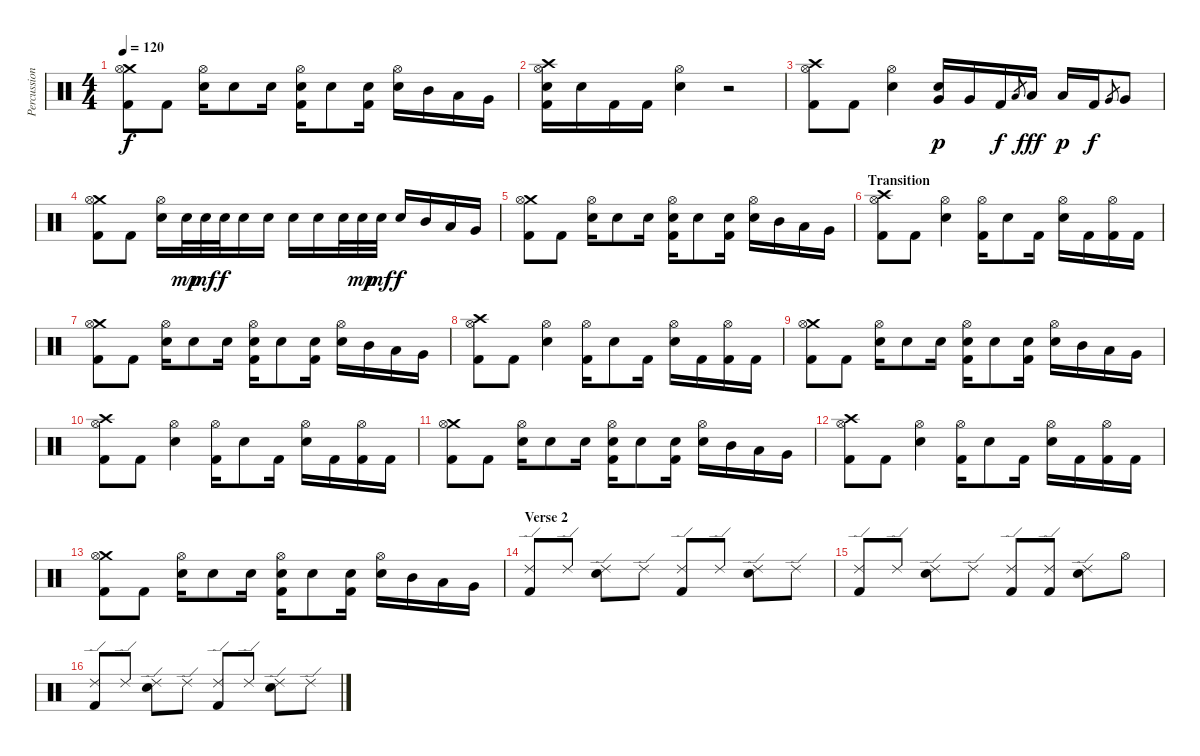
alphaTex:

\track ("Percussion" "Percussion") {instrument percussion}
\staff {score}
\articulation defaults
\ts (4 4)
\tempo 120
\clef neutral
\ks c
("Crash medium (hit)" "Hi-Hat (open)" "Kick (hit) 2").8{dy f} "Kick (hit) 2".8 ("Hi-Hat (open)" "Electric Snare (hit)").16 "Electric Snare (hit)".8 "Electric Snare (hit)".16 ("Hi-Hat (open)" "Electric Snare (hit)" "Kick (hit) 2").16 "Electric Snare (hit)".8 ("Electric Snare (hit)" "Kick (hit) 2").16 ("Hi-Hat (open)" "Electric Snare (hit)").16 "Mid Tom (hit)".16 "Low Tom (hit)".16 "Very Low Tom (hit)".16 |
("Crash high (hit)" "Hi-Hat (open)" "Electric Snare (hit)" "Kick (hit) 2").16 "Electric Snare (hit)".16 "Kick (hit) 2".16 "Kick (hit) 2".16 ("Hi-Hat (open)" "Electric Snare (hit)").4 r.2 |
("Crash high (hit)" "Hi-Hat (open)" "Kick (hit) 2").8 "Kick (hit) 2".8 ("Hi-Hat (open)" "Electric Snare (hit)").4 ("Electric Snare (hit)" "Very Low Tom (hit)").16{dy p} "Very Low Tom (hit)".16 "Kick (hit) 2".16{dy f} "Low Tom (hit)".8{gr} "Low Tom (hit)".16{dy fff} "Low Tom (hit)".16{dy p} "Kick (hit) 2".16{dy f} "Very Low Tom (hit)".8{gr} "Very Low Tom (hit)".8 |
("Crash medium (hit)" "Hi-Hat (open)" "Kick (hit) 2").8 "Kick (hit) 2".8 ("Hi-Hat (open)" "Electric Snare (hit)").16 "Electric Snare (hit)".32{dy mp} "Electric Snare (hit)".32{dy mf} "Electric Snare (hit)".32{dy f} "Electric Snare (hit)".16 "Electric Snare (hit)".16 "Electric Snare (hit)".16 "Electric Snare (hit)".16 "Electric Snare (hit)".32 "Electric Snare (hit)".32{dy mp} "Electric Snare (hit)".32{dy mf} "Electric Snare (hit)".16{dy f} "Mid Tom (hit)".16 "Low Tom (hit)".16 "Very Low Tom (hit)".16 |
("Crash medium (hit)" "Hi-Hat (open)" "Kick (hit) 2").8 "Kick (hit) 2".8 ("Hi-Hat (open)" "Electric Snare (hit)").16 "Electric Snare (hit)".8 "Electric Snare (hit)".16 ("Hi-Hat (open)" "Electric Snare (hit)" "Kick (hit) 2").16 "Electric Snare (hit)".8 ("Electric Snare (hit)" "Kick (hit) 2").16 ("Hi-Hat (open)" "Electric Snare (hit)").16 "Mid Tom (hit)".16 "Low Tom (hit)".16 "Very Low Tom (hit)".16 |
\section ("" "Transition")
("Crash high (hit)" "Hi-Hat (open)" "Kick (hit) 2").8 "Kick (hit) 2".8 ("Hi-Hat (open)" "Electric Snare (hit)").4 ("Hi-Hat (open)" "Kick (hit) 2").16 "Electric Snare (hit)".8 "Kick (hit) 2".16 ("Hi-Hat (open)" "Electric Snare (hit)").16 "Kick (hit) 2".16 ("Hi-Hat (open)" "Kick (hit) 2").16 "Kick (hit) 2".16 |
("Crash medium (hit)" "Hi-Hat (open)" "Kick (hit) 2").8 "Kick (hit) 2".8 ("Hi-Hat (open)" "Electric Snare (hit)").16 "Electric Snare (hit)".8 "Electric Snare (hit)".16 ("Hi-Hat (open)" "Electric Snare (hit)" "Kick (hit) 2").16 "Electric Snare (hit)".8 ("Electric Snare (hit)" "Kick (hit) 2").16 ("Hi-Hat (open)" "Electric Snare (hit)").16 "Mid Tom (hit)".16 "Low Tom (hit)".16 "Very Low Tom (hit)".16 |
("Crash high (hit)" "Hi-Hat (open)" "Kick (hit) 2").8 "Kick (hit) 2".8 ("Hi-Hat (open)" "Electric Snare (hit)").4 ("Hi-Hat (open)" "Kick (hit) 2").16 "Electric Snare (hit)".8 "Kick (hit) 2".16 ("Hi-Hat (open)" "Electric Snare (hit)").16 "Kick (hit) 2".16 ("Hi-Hat (open)" "Kick (hit) 2").16 "Kick (hit) 2".16 |
("Crash medium (hit)" "Hi-Hat (open)" "Kick (hit) 2").8 "Kick (hit) 2".8 ("Hi-Hat (open)" "Electric Snare (hit)").16 "Electric Snare (hit)".8 "Electric Snare (hit)".16 ("Hi-Hat (open)" "Electric Snare (hit)" "Kick (hit) 2").16 "Electric Snare (hit)".8 ("Electric Snare (hit)" "Kick (hit) 2").16 ("Hi-Hat (open)" "Electric Snare (hit)").16 "Mid Tom (hit)".16 "Low Tom (hit)".16 "Very Low Tom (hit)".16 |
("Crash high (hit)" "Hi-Hat (open)" "Kick (hit) 2").8 "Kick (hit) 2".8 ("Hi-Hat (open)" "Electric Snare (hit)").4 ("Hi-Hat (open)" "Kick (hit) 2").16 "Electric Snare (hit)".8 "Kick (hit) 2".16 ("Hi-Hat (open)" "Electric Snare (hit)").16 "Kick (hit) 2".16 ("Hi-Hat (open)" "Kick (hit) 2").16 "Kick (hit) 2".16 |
("Crash medium (hit)" "Hi-Hat (open)" "Kick (hit) 2").8 "Kick (hit) 2".8 ("Hi-Hat (open)" "Electric Snare (hit)").16 "Electric Snare (hit)".8 "Electric Snare (hit)".16 ("Hi-Hat (open)" "Electric Snare (hit)" "Kick (hit) 2").16 "Electric Snare (hit)".8 ("Electric Snare (hit)" "Kick (hit) 2").16 ("Hi-Hat (open)" "Electric Snare (hit)").16 "Mid Tom (hit)".16 "Low Tom (hit)".16 "Very Low Tom (hit)".16 |
("Crash high (hit)" "Hi-Hat (open)" "Kick (hit) 2").8 "Kick (hit) 2".8 ("Hi-Hat (open)" "Electric Snare (hit)").4 ("Hi-Hat (open)" "Kick (hit) 2").16 "Electric Snare (hit)".8 "Kick (hit) 2".16 ("Hi-Hat (open)" "Electric Snare (hit)").16 "Kick (hit) 2".16 ("Hi-Hat (open)" "Kick (hit) 2").16 "Kick (hit) 2".16 |
("Crash medium (hit)" "Hi-Hat (open)" "Kick (hit) 2").8 "Kick (hit) 2".8 ("Hi-Hat (open)" "Electric Snare (hit)").16 "Electric Snare (hit)".8 "Electric Snare (hit)".16 ("Hi-Hat (open)" "Electric Snare (hit)" "Kick (hit) 2").16 "Electric Snare (hit)".8 ("Electric Snare (hit)" "Kick (hit) 2").16 ("Hi-Hat (open)" "Electric Snare (hit)").16 "Mid Tom (hit)".16 "Low Tom (hit)".16 "Very Low Tom (hit)".16 |
\section ("" "Verse 2")
("Ride (edge) 2" "Kick (hit) 2").8 "Ride (edge) 2".8 ("Ride (edge) 2" "Electric Snare (hit)").8 "Ride (edge) 2".8 ("Ride (edge) 2" "Kick (hit) 2").8 "Ride (edge) 2".8 ("Ride (edge) 2" "Electric Snare (hit)").8 "Ride (edge) 2".8 |
("Ride (edge) 2" "Kick (hit) 2").8 "Ride (edge) 2".8 ("Ride (edge) 2" "Electric Snare (hit)").8 "Ride (edge) 2".8 ("Ride (edge) 2" "Kick (hit) 2").8 ("Ride (edge) 2" "Kick (hit) 2").8 ("Ride (edge) 2" "Electric Snare (hit)").8 "Hi-Hat (open)".8 |
("Ride (edge) 2" "Kick (hit) 2").8 "Ride (edge) 2".8 ("Ride (edge) 2" "Electric Snare (hit)").8 "Ride (edge) 2".8 ("Ride (edge) 2" "Kick (hit) 2").8 "Ride (edge) 2".8 ("Ride (edge) 2" "Electric Snare (hit)").8 "Ride (edge) 2".8
